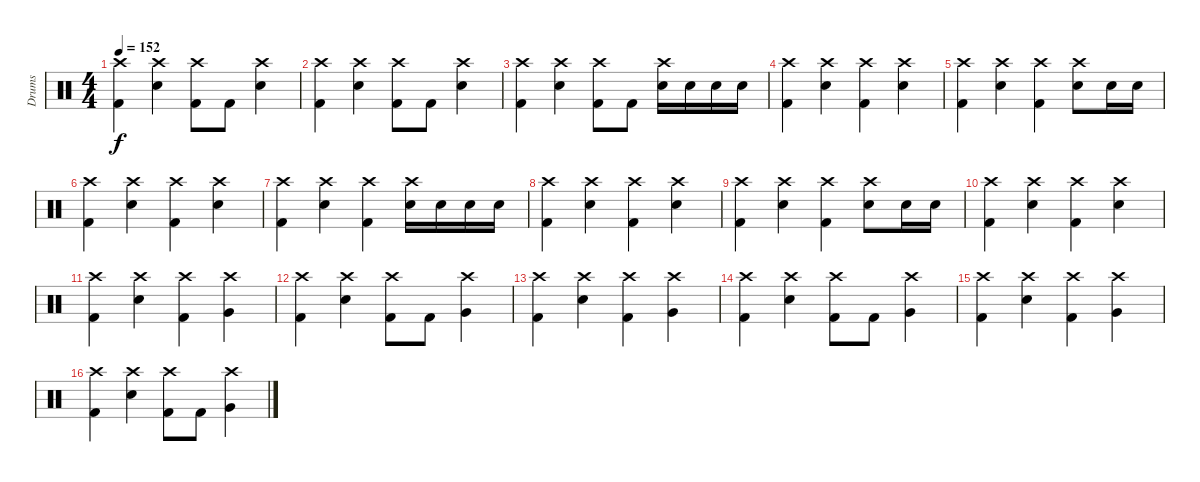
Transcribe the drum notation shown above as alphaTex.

\track ("Drums" "Drums") {instrument percussion}
\staff {score}
\articulation defaults
\ts (4 4)
\tempo 152
\clef neutral
\ks c
("Crash high (hit)" "Kick (hit) 2").4{dy f} ("Crash high (hit)" "Electric Snare (hit)").4 ("Crash high (hit)" "Kick (hit) 2").8 "Kick (hit) 2".8 ("Crash high (hit)" "Electric Snare (hit)").4 |
("Crash high (hit)" "Kick (hit) 2").4 ("Crash high (hit)" "Electric Snare (hit)").4 ("Crash high (hit)" "Kick (hit) 2").8 "Kick (hit) 2".8 ("Crash high (hit)" "Electric Snare (hit)").4 |
("Crash high (hit)" "Kick (hit) 2").4 ("Crash high (hit)" "Electric Snare (hit)").4 ("Crash high (hit)" "Kick (hit) 2").8 "Kick (hit) 2".8 ("Crash high (hit)" "Electric Snare (hit)").16 "Electric Snare (hit)".16 "Electric Snare (hit)".16 "Electric Snare (hit)".16 |
("Crash high (hit)" "Kick (hit) 2").4 ("Crash high (hit)" "Electric Snare (hit)").4 ("Crash high (hit)" "Kick (hit) 2").4 ("Crash high (hit)" "Electric Snare (hit)").4 |
("Crash high (hit)" "Kick (hit) 2").4 ("Crash high (hit)" "Electric Snare (hit)").4 ("Crash high (hit)" "Kick (hit) 2").4 ("Crash high (hit)" "Electric Snare (hit)").8 "Electric Snare (hit)".16 "Electric Snare (hit)".16 |
("Crash high (hit)" "Kick (hit) 2").4 ("Crash high (hit)" "Electric Snare (hit)").4 ("Crash high (hit)" "Kick (hit) 2").4 ("Crash high (hit)" "Electric Snare (hit)").4 |
("Crash high (hit)" "Kick (hit) 2").4 ("Crash high (hit)" "Electric Snare (hit)").4 ("Crash high (hit)" "Kick (hit) 2").4 ("Crash high (hit)" "Electric Snare (hit)").16 "Electric Snare (hit)".16 "Electric Snare (hit)".16 "Electric Snare (hit)".16 |
("Crash high (hit)" "Kick (hit) 2").4 ("Crash high (hit)" "Electric Snare (hit)").4 ("Crash high (hit)" "Kick (hit) 2").4 ("Crash high (hit)" "Electric Snare (hit)").4 |
("Crash high (hit)" "Kick (hit) 2").4 ("Crash high (hit)" "Electric Snare (hit)").4 ("Crash high (hit)" "Kick (hit) 2").4 ("Crash high (hit)" "Electric Snare (hit)").8 "Electric Snare (hit)".16 "Electric Snare (hit)".16 |
("Crash high (hit)" "Kick (hit) 2").4 ("Crash high (hit)" "Electric Snare (hit)").4 ("Crash high (hit)" "Kick (hit) 2").4 ("Crash high (hit)" "Electric Snare (hit)").4 |
("Crash high (hit)" "Kick (hit) 2").4 ("Crash high (hit)" "Electric Snare (hit)").4 ("Crash high (hit)" "Kick (hit) 2").4 ("Crash high (hit)" "Very Low Tom (hit)").4 |
("Crash high (hit)" "Kick (hit) 2").4 ("Crash high (hit)" "Electric Snare (hit)").4 ("Crash high (hit)" "Kick (hit) 2").8 "Kick (hit) 2".8 ("Crash high (hit)" "Very Low Tom (hit)").4 |
("Crash high (hit)" "Kick (hit) 2").4 ("Crash high (hit)" "Electric Snare (hit)").4 ("Crash high (hit)" "Kick (hit) 2").4 ("Crash high (hit)" "Very Low Tom (hit)").4 |
("Crash high (hit)" "Kick (hit) 2").4 ("Crash high (hit)" "Electric Snare (hit)").4 ("Crash high (hit)" "Kick (hit) 2").8 "Kick (hit) 2".8 ("Crash high (hit)" "Very Low Tom (hit)").4 |
("Crash high (hit)" "Kick (hit) 2").4 ("Crash high (hit)" "Electric Snare (hit)").4 ("Crash high (hit)" "Kick (hit) 2").4 ("Crash high (hit)" "Very Low Tom (hit)").4 |
("Crash high (hit)" "Kick (hit) 2").4 ("Crash high (hit)" "Electric Snare (hit)").4 ("Crash high (hit)" "Kick (hit) 2").8 "Kick (hit) 2".8 ("Crash high (hit)" "Very Low Tom (hit)").4
